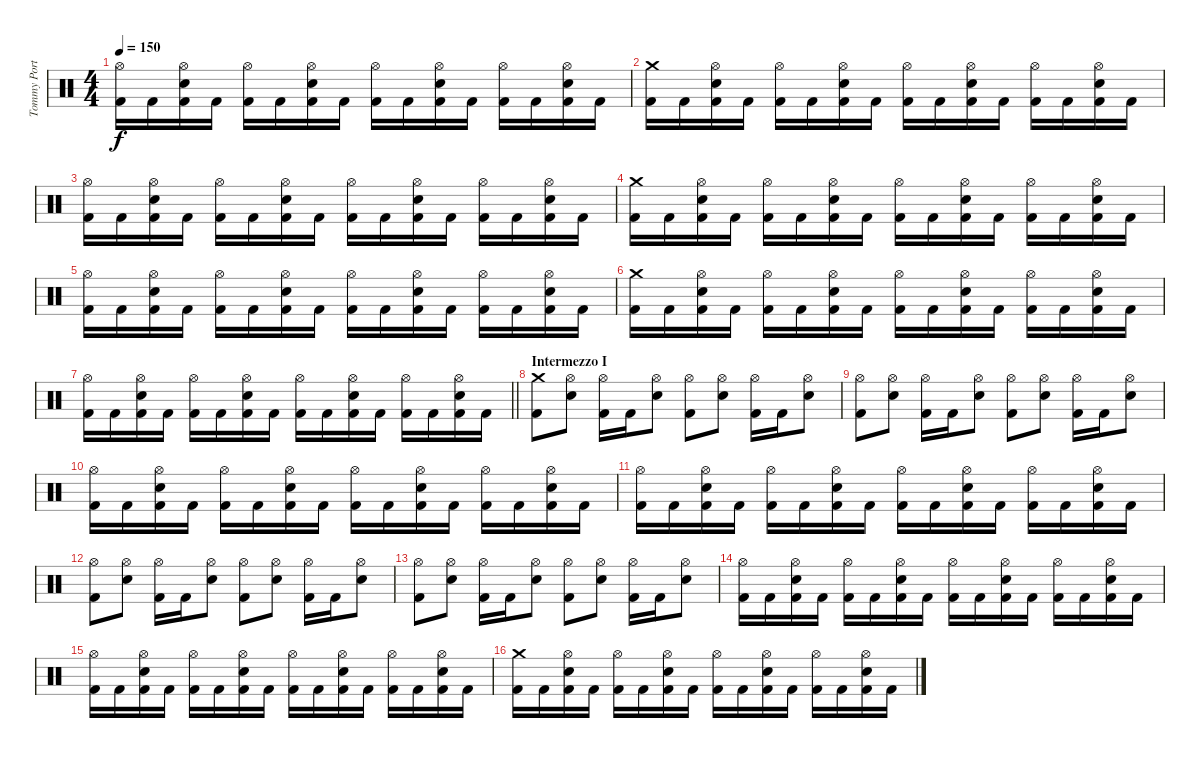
\track ("Tommy Portimo" "Tommy Port") {instrument percussion}
\staff {score}
\articulation defaults
\ts (4 4)
\tempo 150
\clef neutral
\ks c
("Hi-Hat (open)" "Kick (hit) 2").16{dy f} "Kick (hit) 2".16 ("Hi-Hat (open)" "Electric Snare (hit)" "Kick (hit) 2").16 "Kick (hit) 2".16 ("Hi-Hat (open)" "Kick (hit) 2").16 "Kick (hit) 2".16 ("Hi-Hat (open)" "Electric Snare (hit)" "Kick (hit) 2").16 "Kick (hit) 2".16 ("Hi-Hat (open)" "Kick (hit) 2").16 "Kick (hit) 2".16 ("Hi-Hat (open)" "Electric Snare (hit)" "Kick (hit) 2").16 "Kick (hit) 2".16 ("Hi-Hat (open)" "Kick (hit) 2").16 "Kick (hit) 2".16 ("Hi-Hat (open)" "Electric Snare (hit)" "Kick (hit) 2").16 "Kick (hit) 2".16 |
("Crash medium (hit)" "Kick (hit) 2").16 "Kick (hit) 2".16 ("Hi-Hat (open)" "Electric Snare (hit)" "Kick (hit) 2").16 "Kick (hit) 2".16 ("Hi-Hat (open)" "Kick (hit) 2").16 "Kick (hit) 2".16 ("Hi-Hat (open)" "Electric Snare (hit)" "Kick (hit) 2").16 "Kick (hit) 2".16 ("Hi-Hat (open)" "Kick (hit) 2").16 "Kick (hit) 2".16 ("Hi-Hat (open)" "Electric Snare (hit)" "Kick (hit) 2").16 "Kick (hit) 2".16 ("Hi-Hat (open)" "Kick (hit) 2").16 "Kick (hit) 2".16 ("Hi-Hat (open)" "Electric Snare (hit)" "Kick (hit) 2").16 "Kick (hit) 2".16 |
("Hi-Hat (open)" "Kick (hit) 2").16 "Kick (hit) 2".16 ("Hi-Hat (open)" "Electric Snare (hit)" "Kick (hit) 2").16 "Kick (hit) 2".16 ("Hi-Hat (open)" "Kick (hit) 2").16 "Kick (hit) 2".16 ("Hi-Hat (open)" "Electric Snare (hit)" "Kick (hit) 2").16 "Kick (hit) 2".16 ("Hi-Hat (open)" "Kick (hit) 2").16 "Kick (hit) 2".16 ("Hi-Hat (open)" "Electric Snare (hit)" "Kick (hit) 2").16 "Kick (hit) 2".16 ("Hi-Hat (open)" "Kick (hit) 2").16 "Kick (hit) 2".16 ("Hi-Hat (open)" "Electric Snare (hit)" "Kick (hit) 2").16 "Kick (hit) 2".16 |
("Crash medium (hit)" "Kick (hit) 2").16 "Kick (hit) 2".16 ("Hi-Hat (open)" "Electric Snare (hit)" "Kick (hit) 2").16 "Kick (hit) 2".16 ("Hi-Hat (open)" "Kick (hit) 2").16 "Kick (hit) 2".16 ("Hi-Hat (open)" "Electric Snare (hit)" "Kick (hit) 2").16 "Kick (hit) 2".16 ("Hi-Hat (open)" "Kick (hit) 2").16 "Kick (hit) 2".16 ("Hi-Hat (open)" "Electric Snare (hit)" "Kick (hit) 2").16 "Kick (hit) 2".16 ("Hi-Hat (open)" "Kick (hit) 2").16 "Kick (hit) 2".16 ("Hi-Hat (open)" "Electric Snare (hit)" "Kick (hit) 2").16 "Kick (hit) 2".16 |
("Hi-Hat (open)" "Kick (hit) 2").16 "Kick (hit) 2".16 ("Hi-Hat (open)" "Electric Snare (hit)" "Kick (hit) 2").16 "Kick (hit) 2".16 ("Hi-Hat (open)" "Kick (hit) 2").16 "Kick (hit) 2".16 ("Hi-Hat (open)" "Electric Snare (hit)" "Kick (hit) 2").16 "Kick (hit) 2".16 ("Hi-Hat (open)" "Kick (hit) 2").16 "Kick (hit) 2".16 ("Hi-Hat (open)" "Electric Snare (hit)" "Kick (hit) 2").16 "Kick (hit) 2".16 ("Hi-Hat (open)" "Kick (hit) 2").16 "Kick (hit) 2".16 ("Hi-Hat (open)" "Electric Snare (hit)" "Kick (hit) 2").16 "Kick (hit) 2".16 |
("Crash medium (hit)" "Kick (hit) 2").16 "Kick (hit) 2".16 ("Hi-Hat (open)" "Electric Snare (hit)" "Kick (hit) 2").16 "Kick (hit) 2".16 ("Hi-Hat (open)" "Kick (hit) 2").16 "Kick (hit) 2".16 ("Hi-Hat (open)" "Electric Snare (hit)" "Kick (hit) 2").16 "Kick (hit) 2".16 ("Hi-Hat (open)" "Kick (hit) 2").16 "Kick (hit) 2".16 ("Hi-Hat (open)" "Electric Snare (hit)" "Kick (hit) 2").16 "Kick (hit) 2".16 ("Hi-Hat (open)" "Kick (hit) 2").16 "Kick (hit) 2".16 ("Hi-Hat (open)" "Electric Snare (hit)" "Kick (hit) 2").16 "Kick (hit) 2".16 |
\barLineRight lightlight
("Hi-Hat (open)" "Kick (hit) 2").16 "Kick (hit) 2".16 ("Hi-Hat (open)" "Electric Snare (hit)" "Kick (hit) 2").16 "Kick (hit) 2".16 ("Hi-Hat (open)" "Kick (hit) 2").16 "Kick (hit) 2".16 ("Hi-Hat (open)" "Electric Snare (hit)" "Kick (hit) 2").16 "Kick (hit) 2".16 ("Hi-Hat (open)" "Kick (hit) 2").16 "Kick (hit) 2".16 ("Hi-Hat (open)" "Electric Snare (hit)" "Kick (hit) 2").16 "Kick (hit) 2".16 ("Hi-Hat (open)" "Kick (hit) 2").16 "Kick (hit) 2".16 ("Hi-Hat (open)" "Electric Snare (hit)" "Kick (hit) 2").16 "Kick (hit) 2".16 |
\section ("" "Intermezzo I")
("Crash medium (hit)" "Kick (hit) 2").8 ("Hi-Hat (open)" "Electric Snare (hit)").8 ("Hi-Hat (open)" "Kick (hit) 2").16 "Kick (hit) 2".16 ("Hi-Hat (open)" "Electric Snare (hit)").8 ("Hi-Hat (open)" "Kick (hit) 2").8 ("Hi-Hat (open)" "Electric Snare (hit)").8 ("Hi-Hat (open)" "Kick (hit) 2").16 "Kick (hit) 2".16 ("Hi-Hat (open)" "Electric Snare (hit)").8 |
("Hi-Hat (open)" "Kick (hit) 2").8 ("Hi-Hat (open)" "Electric Snare (hit)").8 ("Hi-Hat (open)" "Kick (hit) 2").16 "Kick (hit) 2".16 ("Hi-Hat (open)" "Electric Snare (hit)").8 ("Hi-Hat (open)" "Kick (hit) 2").8 ("Hi-Hat (open)" "Electric Snare (hit)").8 ("Hi-Hat (open)" "Kick (hit) 2").16 "Kick (hit) 2".16 ("Hi-Hat (open)" "Electric Snare (hit)").8 |
("Hi-Hat (open)" "Kick (hit) 2").16 "Kick (hit) 2".16 ("Hi-Hat (open)" "Electric Snare (hit)" "Kick (hit) 2").16 "Kick (hit) 2".16 ("Hi-Hat (open)" "Kick (hit) 2").16 "Kick (hit) 2".16 ("Hi-Hat (open)" "Electric Snare (hit)" "Kick (hit) 2").16 "Kick (hit) 2".16 ("Hi-Hat (open)" "Kick (hit) 2").16 "Kick (hit) 2".16 ("Hi-Hat (open)" "Electric Snare (hit)" "Kick (hit) 2").16 "Kick (hit) 2".16 ("Hi-Hat (open)" "Kick (hit) 2").16 "Kick (hit) 2".16 ("Hi-Hat (open)" "Electric Snare (hit)" "Kick (hit) 2").16 "Kick (hit) 2".16 |
("Hi-Hat (open)" "Kick (hit) 2").16 "Kick (hit) 2".16 ("Hi-Hat (open)" "Electric Snare (hit)" "Kick (hit) 2").16 "Kick (hit) 2".16 ("Hi-Hat (open)" "Kick (hit) 2").16 "Kick (hit) 2".16 ("Hi-Hat (open)" "Electric Snare (hit)" "Kick (hit) 2").16 "Kick (hit) 2".16 ("Hi-Hat (open)" "Kick (hit) 2").16 "Kick (hit) 2".16 ("Hi-Hat (open)" "Electric Snare (hit)" "Kick (hit) 2").16 "Kick (hit) 2".16 ("Hi-Hat (open)" "Kick (hit) 2").16 "Kick (hit) 2".16 ("Hi-Hat (open)" "Electric Snare (hit)" "Kick (hit) 2").16 "Kick (hit) 2".16 |
("Hi-Hat (open)" "Kick (hit) 2").8 ("Hi-Hat (open)" "Electric Snare (hit)").8 ("Hi-Hat (open)" "Kick (hit) 2").16 "Kick (hit) 2".16 ("Hi-Hat (open)" "Electric Snare (hit)").8 ("Hi-Hat (open)" "Kick (hit) 2").8 ("Hi-Hat (open)" "Electric Snare (hit)").8 ("Hi-Hat (open)" "Kick (hit) 2").16 "Kick (hit) 2".16 ("Hi-Hat (open)" "Electric Snare (hit)").8 |
("Hi-Hat (open)" "Kick (hit) 2").8 ("Hi-Hat (open)" "Electric Snare (hit)").8 ("Hi-Hat (open)" "Kick (hit) 2").16 "Kick (hit) 2".16 ("Hi-Hat (open)" "Electric Snare (hit)").8 ("Hi-Hat (open)" "Kick (hit) 2").8 ("Hi-Hat (open)" "Electric Snare (hit)").8 ("Hi-Hat (open)" "Kick (hit) 2").16 "Kick (hit) 2".16 ("Hi-Hat (open)" "Electric Snare (hit)").8 |
("Hi-Hat (open)" "Kick (hit) 2").16 "Kick (hit) 2".16 ("Hi-Hat (open)" "Electric Snare (hit)" "Kick (hit) 2").16 "Kick (hit) 2".16 ("Hi-Hat (open)" "Kick (hit) 2").16 "Kick (hit) 2".16 ("Hi-Hat (open)" "Electric Snare (hit)" "Kick (hit) 2").16 "Kick (hit) 2".16 ("Hi-Hat (open)" "Kick (hit) 2").16 "Kick (hit) 2".16 ("Hi-Hat (open)" "Electric Snare (hit)" "Kick (hit) 2").16 "Kick (hit) 2".16 ("Hi-Hat (open)" "Kick (hit) 2").16 "Kick (hit) 2".16 ("Hi-Hat (open)" "Electric Snare (hit)" "Kick (hit) 2").16 "Kick (hit) 2".16 |
("Hi-Hat (open)" "Kick (hit) 2").16 "Kick (hit) 2".16 ("Hi-Hat (open)" "Electric Snare (hit)" "Kick (hit) 2").16 "Kick (hit) 2".16 ("Hi-Hat (open)" "Kick (hit) 2").16 "Kick (hit) 2".16 ("Hi-Hat (open)" "Electric Snare (hit)" "Kick (hit) 2").16 "Kick (hit) 2".16 ("Hi-Hat (open)" "Kick (hit) 2").16 "Kick (hit) 2".16 ("Hi-Hat (open)" "Electric Snare (hit)" "Kick (hit) 2").16 "Kick (hit) 2".16 ("Hi-Hat (open)" "Kick (hit) 2").16 "Kick (hit) 2".16 ("Hi-Hat (open)" "Electric Snare (hit)" "Kick (hit) 2").16 "Kick (hit) 2".16 |
("Crash medium (hit)" "Kick (hit) 2").16 "Kick (hit) 2".16 ("Hi-Hat (open)" "Electric Snare (hit)" "Kick (hit) 2").16 "Kick (hit) 2".16 ("Hi-Hat (open)" "Kick (hit) 2").16 "Kick (hit) 2".16 ("Hi-Hat (open)" "Electric Snare (hit)" "Kick (hit) 2").16 "Kick (hit) 2".16 ("Hi-Hat (open)" "Kick (hit) 2").16 "Kick (hit) 2".16 ("Hi-Hat (open)" "Electric Snare (hit)" "Kick (hit) 2").16 "Kick (hit) 2".16 ("Hi-Hat (open)" "Kick (hit) 2").16 "Kick (hit) 2".16 ("Hi-Hat (open)" "Electric Snare (hit)" "Kick (hit) 2").16 "Kick (hit) 2".16
